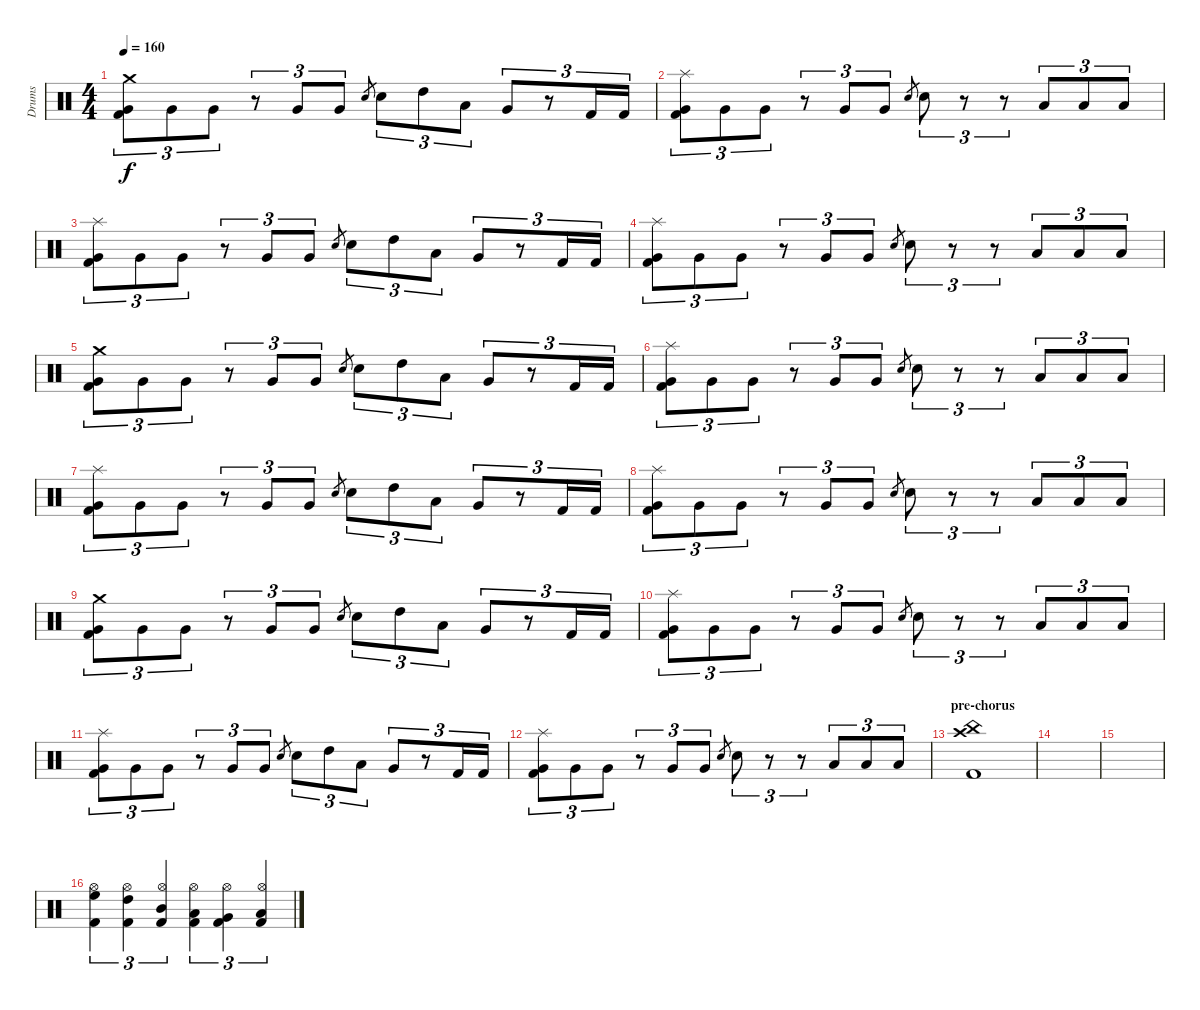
\track ("Drums" "Drums") {instrument percussion}
\staff {score}
\articulation defaults
\ts (4 4)
\tempo 160
\clef neutral
\ks c
("Crash medium (hit)" "Very Low Tom (hit)" "Kick (hit) 2").8{tu (3 2) dy f} "Very Low Tom (hit)".8{tu (3 2)} "Very Low Tom (hit)".8{tu (3 2)} r.8{tu (3 2)} "Very Low Tom (hit)".8{tu (3 2)} "Very Low Tom (hit)".8{tu (3 2)} "Electric Snare (hit)".8{gr} "Electric Snare (hit)".8{tu (3 2)} "High Tom (hit)".8{tu (3 2)} "Low Tom (hit)".8{tu (3 2)} "Very Low Tom (hit)".8{tu (3 2)} r.8{tu (3 2)} "Kick (hit) 2".16{tu (3 2)} "Kick (hit) 2".16{tu (3 2)} |
("Splash (hit)" "Very Low Tom (hit)" "Kick (hit) 2").8{tu (3 2)} "Very Low Tom (hit)".8{tu (3 2)} "Very Low Tom (hit)".8{tu (3 2)} r.8{tu (3 2)} "Very Low Tom (hit)".8{tu (3 2)} "Very Low Tom (hit)".8{tu (3 2)} "Electric Snare (hit)".8{gr} "Electric Snare (hit)".8{tu (3 2)} r.8{tu (3 2)} r.8{tu (3 2)} "Low Tom (hit)".8{tu (3 2)} "Low Tom (hit)".8{tu (3 2)} "Low Tom (hit)".8{tu (3 2)} |
("Splash (hit)" "Very Low Tom (hit)" "Kick (hit) 2").8{tu (3 2)} "Very Low Tom (hit)".8{tu (3 2)} "Very Low Tom (hit)".8{tu (3 2)} r.8{tu (3 2)} "Very Low Tom (hit)".8{tu (3 2)} "Very Low Tom (hit)".8{tu (3 2)} "Electric Snare (hit)".8{gr} "Electric Snare (hit)".8{tu (3 2)} "High Tom (hit)".8{tu (3 2)} "Low Tom (hit)".8{tu (3 2)} "Very Low Tom (hit)".8{tu (3 2)} r.8{tu (3 2)} "Kick (hit) 2".16{tu (3 2)} "Kick (hit) 2".16{tu (3 2)} |
("Splash (hit)" "Very Low Tom (hit)" "Kick (hit) 2").8{tu (3 2)} "Very Low Tom (hit)".8{tu (3 2)} "Very Low Tom (hit)".8{tu (3 2)} r.8{tu (3 2)} "Very Low Tom (hit)".8{tu (3 2)} "Very Low Tom (hit)".8{tu (3 2)} "Electric Snare (hit)".8{gr} "Electric Snare (hit)".8{tu (3 2)} r.8{tu (3 2)} r.8{tu (3 2)} "Low Tom (hit)".8{tu (3 2)} "Low Tom (hit)".8{tu (3 2)} "Low Tom (hit)".8{tu (3 2)} |
("Crash medium (hit)" "Very Low Tom (hit)" "Kick (hit) 2").8{tu (3 2)} "Very Low Tom (hit)".8{tu (3 2)} "Very Low Tom (hit)".8{tu (3 2)} r.8{tu (3 2)} "Very Low Tom (hit)".8{tu (3 2)} "Very Low Tom (hit)".8{tu (3 2)} "Electric Snare (hit)".8{gr} "Electric Snare (hit)".8{tu (3 2)} "High Tom (hit)".8{tu (3 2)} "Low Tom (hit)".8{tu (3 2)} "Very Low Tom (hit)".8{tu (3 2)} r.8{tu (3 2)} "Kick (hit) 2".16{tu (3 2)} "Kick (hit) 2".16{tu (3 2)} |
("Splash (hit)" "Very Low Tom (hit)" "Kick (hit) 2").8{tu (3 2)} "Very Low Tom (hit)".8{tu (3 2)} "Very Low Tom (hit)".8{tu (3 2)} r.8{tu (3 2)} "Very Low Tom (hit)".8{tu (3 2)} "Very Low Tom (hit)".8{tu (3 2)} "Electric Snare (hit)".8{gr} "Electric Snare (hit)".8{tu (3 2)} r.8{tu (3 2)} r.8{tu (3 2)} "Low Tom (hit)".8{tu (3 2)} "Low Tom (hit)".8{tu (3 2)} "Low Tom (hit)".8{tu (3 2)} |
("Splash (hit)" "Very Low Tom (hit)" "Kick (hit) 2").8{tu (3 2)} "Very Low Tom (hit)".8{tu (3 2)} "Very Low Tom (hit)".8{tu (3 2)} r.8{tu (3 2)} "Very Low Tom (hit)".8{tu (3 2)} "Very Low Tom (hit)".8{tu (3 2)} "Electric Snare (hit)".8{gr} "Electric Snare (hit)".8{tu (3 2)} "High Tom (hit)".8{tu (3 2)} "Low Tom (hit)".8{tu (3 2)} "Very Low Tom (hit)".8{tu (3 2)} r.8{tu (3 2)} "Kick (hit) 2".16{tu (3 2)} "Kick (hit) 2".16{tu (3 2)} |
("Splash (hit)" "Very Low Tom (hit)" "Kick (hit) 2").8{tu (3 2)} "Very Low Tom (hit)".8{tu (3 2)} "Very Low Tom (hit)".8{tu (3 2)} r.8{tu (3 2)} "Very Low Tom (hit)".8{tu (3 2)} "Very Low Tom (hit)".8{tu (3 2)} "Electric Snare (hit)".8{gr} "Electric Snare (hit)".8{tu (3 2)} r.8{tu (3 2)} r.8{tu (3 2)} "Low Tom (hit)".8{tu (3 2)} "Low Tom (hit)".8{tu (3 2)} "Low Tom (hit)".8{tu (3 2)} |
("Crash medium (hit)" "Very Low Tom (hit)" "Kick (hit) 2").8{tu (3 2)} "Very Low Tom (hit)".8{tu (3 2)} "Very Low Tom (hit)".8{tu (3 2)} r.8{tu (3 2)} "Very Low Tom (hit)".8{tu (3 2)} "Very Low Tom (hit)".8{tu (3 2)} "Electric Snare (hit)".8{gr} "Electric Snare (hit)".8{tu (3 2)} "High Tom (hit)".8{tu (3 2)} "Low Tom (hit)".8{tu (3 2)} "Very Low Tom (hit)".8{tu (3 2)} r.8{tu (3 2)} "Kick (hit) 2".16{tu (3 2)} "Kick (hit) 2".16{tu (3 2)} |
("Splash (hit)" "Very Low Tom (hit)" "Kick (hit) 2").8{tu (3 2)} "Very Low Tom (hit)".8{tu (3 2)} "Very Low Tom (hit)".8{tu (3 2)} r.8{tu (3 2)} "Very Low Tom (hit)".8{tu (3 2)} "Very Low Tom (hit)".8{tu (3 2)} "Electric Snare (hit)".8{gr} "Electric Snare (hit)".8{tu (3 2)} r.8{tu (3 2)} r.8{tu (3 2)} "Low Tom (hit)".8{tu (3 2)} "Low Tom (hit)".8{tu (3 2)} "Low Tom (hit)".8{tu (3 2)} |
("Splash (hit)" "Very Low Tom (hit)" "Kick (hit) 2").8{tu (3 2)} "Very Low Tom (hit)".8{tu (3 2)} "Very Low Tom (hit)".8{tu (3 2)} r.8{tu (3 2)} "Very Low Tom (hit)".8{tu (3 2)} "Very Low Tom (hit)".8{tu (3 2)} "Electric Snare (hit)".8{gr} "Electric Snare (hit)".8{tu (3 2)} "High Tom (hit)".8{tu (3 2)} "Low Tom (hit)".8{tu (3 2)} "Very Low Tom (hit)".8{tu (3 2)} r.8{tu (3 2)} "Kick (hit) 2".16{tu (3 2)} "Kick (hit) 2".16{tu (3 2)} |
("Splash (hit)" "Very Low Tom (hit)" "Kick (hit) 2").8{tu (3 2)} "Very Low Tom (hit)".8{tu (3 2)} "Very Low Tom (hit)".8{tu (3 2)} r.8{tu (3 2)} "Very Low Tom (hit)".8{tu (3 2)} "Very Low Tom (hit)".8{tu (3 2)} "Electric Snare (hit)".8{gr} "Electric Snare (hit)".8{tu (3 2)} r.8{tu (3 2)} r.8{tu (3 2)} "Low Tom (hit)".8{tu (3 2)} "Low Tom (hit)".8{tu (3 2)} "Low Tom (hit)".8{tu (3 2)} |
\section ("" "pre-chorus")
("China (hit)" "Crash high (hit)" "Kick (hit) 2").1 |
|
|
("Hi-Hat (open)" "High Floor Tom (hit)" "Kick (hit) 2").4{tu (3 2)} ("Hi-Hat (open)" "High Tom (hit)" "Kick (hit) 2").4{tu (3 2)} ("Hi-Hat (open)" "Mid Tom (hit)" "Kick (hit) 2").4{tu (3 2)} ("Hi-Hat (open)" "Low Tom (hit)" "Kick (hit) 2").4{tu (3 2)} ("Hi-Hat (open)" "Very Low Tom (hit)" "Kick (hit) 2").4{tu (3 2)} ("Hi-Hat (open)" "Low Floor Tom (hit)" "Kick (hit) 2").4{tu (3 2)}
